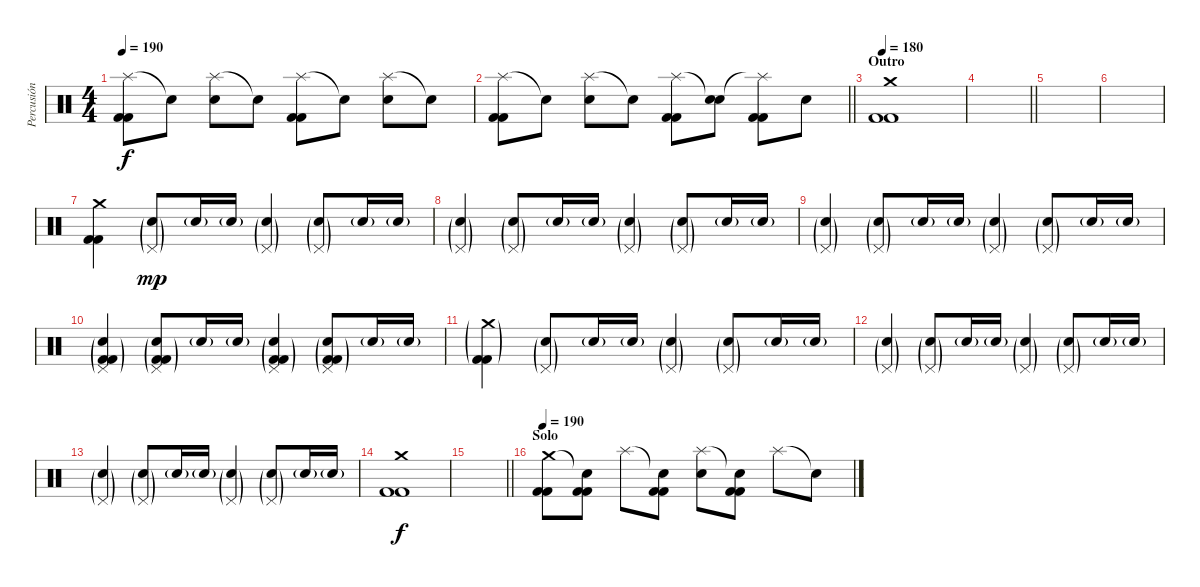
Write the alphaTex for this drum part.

\track ("Percusión" "Percusión") {instrument percussion}
\staff {score}
\articulation defaults
\ts (4 4)
\tempo 190
\clef neutral
\ks c
("Splash (hit)" "Kick (hit) 2" "Kick (hit) 2").8{dy f} "Snare (hit)"{t}.8 ("Splash (hit)" "Electric Snare (hit)").8 "Snare (hit)"{t}.8 ("Splash (hit)" "Kick (hit) 2" "Kick (hit) 2").8 "Snare (hit)"{t}.8 ("Splash (hit)" "Electric Snare (hit)").8 "Snare (hit)"{t}.8 |
\barLineRight lightlight
("Splash (hit)" "Kick (hit) 2" "Kick (hit) 2").8 "Snare (hit)"{t}.8 ("Splash (hit)" "Electric Snare (hit)").8 "Snare (hit)"{t}.8 ("Splash (hit)" "Kick (hit) 2" "Kick (hit) 2").8 ("Snare (hit)"{t} "Electric Snare (hit)").8 ("Splash (hit)"{t} "Kick (hit) 2" "Kick (hit) 2").8 "Electric Snare (hit)".8 |
\section ("" "Outro")
\tempo 180
("Crash medium (hit)" "Kick (hit) 2" "Kick (hit) 2").1 |
\barLineRight lightlight
|
|
|
("Crash medium (hit)" "Kick (hit) 2" "Kick (hit) 2").4 ("Pedal Hi-Hat (hit)"{g} "Snare (hit) 2"{g}).8{dy mp} "Snare (hit) 2"{g}.16 "Snare (hit) 2"{g}.16 ("Pedal Hi-Hat (hit)"{g} "Snare (hit) 2"{g}).4 ("Pedal Hi-Hat (hit)"{g} "Electric Snare (hit)"{g}).8 "Electric Snare (hit)"{g}.16 "Electric Snare (hit)"{g}.16 |
("Pedal Hi-Hat (hit)"{g} "Electric Snare (hit)"{g}).4 ("Pedal Hi-Hat (hit)"{g} "Snare (hit) 2"{g}).8 "Snare (hit) 2"{g}.16 "Snare (hit) 2"{g}.16 ("Pedal Hi-Hat (hit)"{g} "Snare (hit) 2"{g}).4 ("Pedal Hi-Hat (hit)"{g} "Electric Snare (hit)"{g}).8 "Electric Snare (hit)"{g}.16 "Electric Snare (hit)"{g}.16 |
("Pedal Hi-Hat (hit)"{g} "Electric Snare (hit)"{g}).4 ("Pedal Hi-Hat (hit)"{g} "Snare (hit) 2"{g}).8 "Snare (hit) 2"{g}.16 "Snare (hit) 2"{g}.16 ("Pedal Hi-Hat (hit)"{g} "Snare (hit) 2"{g}).4 ("Pedal Hi-Hat (hit)"{g} "Electric Snare (hit)"{g}).8 "Electric Snare (hit)"{g}.16 "Electric Snare (hit)"{g}.16 |
("Pedal Hi-Hat (hit)"{g} "Electric Snare (hit)"{g} "Kick (hit) 2"{g} "Kick (hit) 2"{g}).4 ("Pedal Hi-Hat (hit)"{g} "Snare (hit) 2"{g} "Kick (hit) 2"{g} "Kick (hit) 2"{g}).8 "Snare (hit) 2"{g}.16 "Snare (hit) 2"{g}.16 ("Pedal Hi-Hat (hit)"{g} "Snare (hit) 2"{g} "Kick (hit) 2"{g} "Kick (hit) 2"{g}).4 ("Pedal Hi-Hat (hit)"{g} "Electric Snare (hit)"{g} "Kick (hit) 2"{g} "Kick (hit) 2"{g}).8 "Electric Snare (hit)"{g}.16 "Electric Snare (hit)"{g}.16 |
("Crash medium (hit)"{g} "Kick (hit) 2"{g} "Kick (hit) 2"{g}).4 ("Pedal Hi-Hat (hit)"{g} "Snare (hit) 2"{g}).8 "Snare (hit) 2"{g}.16 "Snare (hit) 2"{g}.16 ("Pedal Hi-Hat (hit)"{g} "Snare (hit) 2"{g}).4 ("Pedal Hi-Hat (hit)"{g} "Electric Snare (hit)"{g}).8 "Electric Snare (hit)"{g}.16 "Electric Snare (hit)"{g}.16 |
("Pedal Hi-Hat (hit)"{g} "Electric Snare (hit)"{g}).4 ("Pedal Hi-Hat (hit)"{g} "Snare (hit) 2"{g}).8 "Snare (hit) 2"{g}.16 "Snare (hit) 2"{g}.16 ("Pedal Hi-Hat (hit)"{g} "Snare (hit) 2"{g}).4 ("Pedal Hi-Hat (hit)"{g} "Electric Snare (hit)"{g}).8 "Electric Snare (hit)"{g}.16 "Electric Snare (hit)"{g}.16 |
("Pedal Hi-Hat (hit)"{g} "Electric Snare (hit)"{g}).4 ("Pedal Hi-Hat (hit)"{g} "Snare (hit) 2"{g}).8 "Snare (hit) 2"{g}.16 "Snare (hit) 2"{g}.16 ("Pedal Hi-Hat (hit)"{g} "Snare (hit) 2"{g}).4 ("Pedal Hi-Hat (hit)"{g} "Electric Snare (hit)"{g}).8 "Electric Snare (hit)"{g}.16 "Electric Snare (hit)"{g}.16 |
("Crash medium (hit)" "Kick (hit) 2" "Kick (hit) 2").1{dy f} |
\barLineRight lightlight
|
\section ("" "Solo")
\tempo 190
("Crash medium (hit)" "Kick (hit) 2" "Kick (hit) 2").8 ("Snare (hit)"{t} "Kick (hit) 2" "Kick (hit) 2").8 "Splash (hit)".8 ("Snare (hit)"{t} "Kick (hit) 2" "Kick (hit) 2").8 ("Splash (hit)" "Electric Snare (hit)").8 ("Snare (hit)"{t} "Kick (hit) 2" "Kick (hit) 2").8 "Splash (hit)".8 "Snare (hit)"{t}.8
